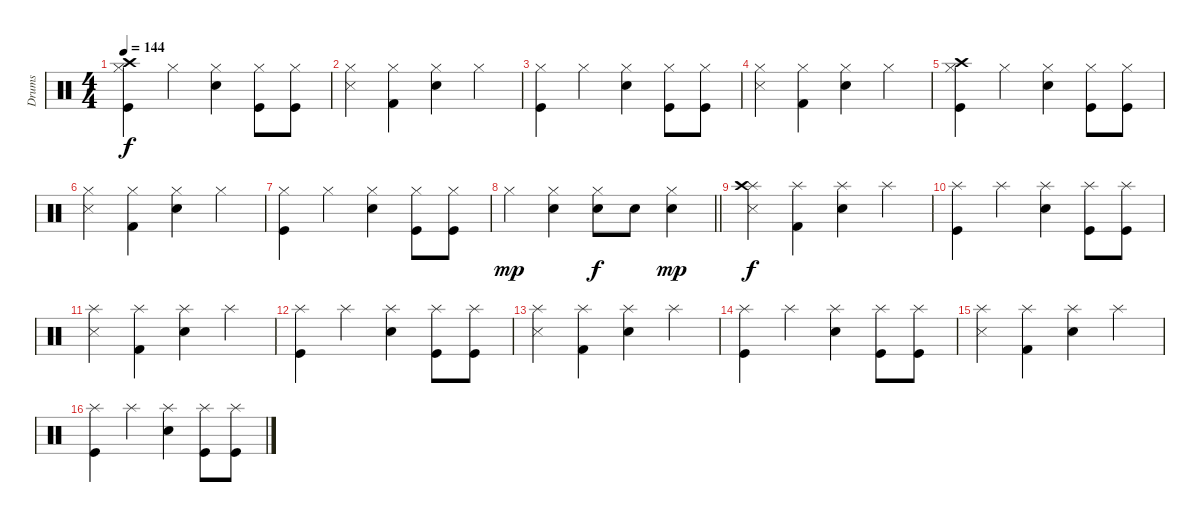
\track ("Drums" "Drums") {instrument percussion}
\staff {score}
\articulation defaults
\ts (4 4)
\tempo 144
\clef neutral
\ks c
("Hi-Hat (closed)" "Crash high (hit)" "Kick (hit)").4{dy f} "Hi-Hat (closed)".4 ("Hi-Hat (closed)" "Electric Snare (hit)").4 ("Hi-Hat (closed)" "Kick (hit)").8 ("Hi-Hat (closed)" "Kick (hit)").8 |
("Hi-Hat (closed)" "Snare (side stick) 3").4 ("Hi-Hat (closed)" "Kick (hit) 2").4 ("Hi-Hat (closed)" "Electric Snare (hit)").4 "Hi-Hat (closed)".4 |
("Hi-Hat (closed)" "Kick (hit)").4 "Hi-Hat (closed)".4 ("Hi-Hat (closed)" "Electric Snare (hit)").4 ("Hi-Hat (closed)" "Kick (hit)").8 ("Hi-Hat (closed)" "Kick (hit)").8 |
("Hi-Hat (closed)" "Snare (side stick) 3").4 ("Hi-Hat (closed)" "Kick (hit) 2").4 ("Hi-Hat (closed)" "Electric Snare (hit)").4 "Hi-Hat (closed)".4 |
("Hi-Hat (closed)" "Crash high (hit)" "Kick (hit)").4 "Hi-Hat (closed)".4 ("Hi-Hat (closed)" "Electric Snare (hit)").4 ("Hi-Hat (closed)" "Kick (hit)").8 ("Hi-Hat (closed)" "Kick (hit)").8 |
("Hi-Hat (closed)" "Snare (side stick) 3").4 ("Hi-Hat (closed)" "Kick (hit) 2").4 ("Hi-Hat (closed)" "Electric Snare (hit)").4 "Hi-Hat (closed)".4 |
("Hi-Hat (closed)" "Kick (hit)").4 "Hi-Hat (closed)".4 ("Hi-Hat (closed)" "Electric Snare (hit)").4 ("Hi-Hat (closed)" "Kick (hit)").8 ("Hi-Hat (closed)" "Kick (hit)").8 |
\barLineRight lightlight "Hi-Hat (closed)".4{dy mp}
("Hi-Hat (closed)" "Electric Snare (hit)").4 ("Hi-Hat (closed)" "Electric Snare (hit)").8{dy f} "Electric Snare (hit)".8 ("Hi-Hat (closed)" "Electric Snare (hit)").4{dy mp} |
("Splash (hit)" "Crash high (hit)" "Snare (side stick) 3").4{dy f} ("Splash (hit)" "Kick (hit) 2").4 ("Splash (hit)" "Electric Snare (hit)").4 "Splash (hit)".4 |
("Splash (hit)" "Kick (hit)").4 "Splash (hit)".4 ("Splash (hit)" "Electric Snare (hit)").4 ("Splash (hit)" "Kick (hit)").8 ("Splash (hit)" "Kick (hit)").8 |
("Splash (hit)" "Snare (side stick) 3").4 ("Splash (hit)" "Kick (hit) 2").4 ("Splash (hit)" "Electric Snare (hit)").4 "Splash (hit)".4 |
("Splash (hit)" "Kick (hit)").4 "Splash (hit)".4 ("Splash (hit)" "Electric Snare (hit)").4 ("Splash (hit)" "Kick (hit)").8 ("Splash (hit)" "Kick (hit)").8 |
("Splash (hit)" "Snare (side stick) 3").4 ("Splash (hit)" "Kick (hit) 2").4 ("Splash (hit)" "Electric Snare (hit)").4 "Splash (hit)".4 |
("Splash (hit)" "Kick (hit)").4 "Splash (hit)".4 ("Splash (hit)" "Electric Snare (hit)").4 ("Splash (hit)" "Kick (hit)").8 ("Splash (hit)" "Kick (hit)").8 |
("Splash (hit)" "Snare (side stick) 3").4 ("Splash (hit)" "Kick (hit) 2").4 ("Splash (hit)" "Electric Snare (hit)").4 "Splash (hit)".4 |
("Splash (hit)" "Kick (hit)").4 "Splash (hit)".4 ("Splash (hit)" "Electric Snare (hit)").4 ("Splash (hit)" "Kick (hit)").8 ("Splash (hit)" "Kick (hit)").8
